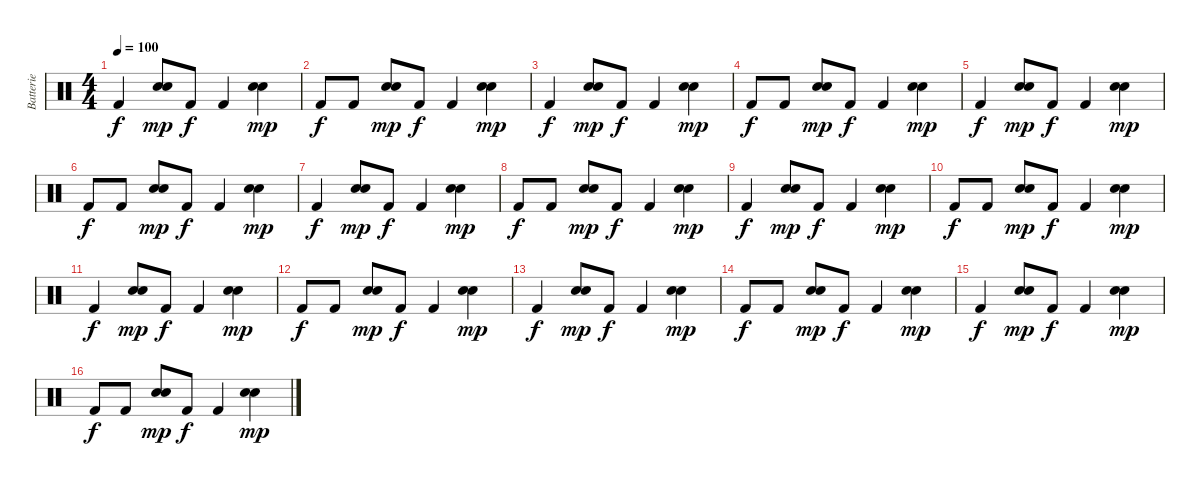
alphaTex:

\track ("Batterie" "Batterie") {instrument percussion}
\staff {score}
\articulation defaults
\ts (4 4)
\tempo 100
\clef neutral
\ks c "Kick (hit) 2".4{dy f}
("Hand Clap (hit)" "Snare (hit) 2").8{dy mp} "Kick (hit) 2".8{dy f} "Kick (hit) 2".4 ("Hand Clap (hit)" "Snare (hit) 2").4{dy mp} |
"Kick (hit) 2".8{dy f} "Kick (hit) 2".8 ("Hand Clap (hit)" "Snare (hit) 2").8{dy mp} "Kick (hit) 2".8{dy f} "Kick (hit) 2".4 ("Hand Clap (hit)" "Snare (hit) 2").4{dy mp} |
"Kick (hit) 2".4{dy f} ("Hand Clap (hit)" "Snare (hit) 2").8{dy mp} "Kick (hit) 2".8{dy f} "Kick (hit) 2".4 ("Hand Clap (hit)" "Snare (hit) 2").4{dy mp} |
"Kick (hit) 2".8{dy f} "Kick (hit) 2".8 ("Hand Clap (hit)" "Snare (hit) 2").8{dy mp} "Kick (hit) 2".8{dy f} "Kick (hit) 2".4 ("Hand Clap (hit)" "Snare (hit) 2").4{dy mp} |
"Kick (hit) 2".4{dy f} ("Hand Clap (hit)" "Snare (hit) 2").8{dy mp} "Kick (hit) 2".8{dy f} "Kick (hit) 2".4 ("Hand Clap (hit)" "Snare (hit) 2").4{dy mp} |
"Kick (hit) 2".8{dy f} "Kick (hit) 2".8 ("Hand Clap (hit)" "Snare (hit) 2").8{dy mp} "Kick (hit) 2".8{dy f} "Kick (hit) 2".4 ("Hand Clap (hit)" "Snare (hit) 2").4{dy mp} |
"Kick (hit) 2".4{dy f} ("Hand Clap (hit)" "Snare (hit) 2").8{dy mp} "Kick (hit) 2".8{dy f} "Kick (hit) 2".4 ("Hand Clap (hit)" "Snare (hit) 2").4{dy mp} |
"Kick (hit) 2".8{dy f} "Kick (hit) 2".8 ("Hand Clap (hit)" "Snare (hit) 2").8{dy mp} "Kick (hit) 2".8{dy f} "Kick (hit) 2".4 ("Hand Clap (hit)" "Snare (hit) 2").4{dy mp} |
"Kick (hit) 2".4{dy f} ("Hand Clap (hit)" "Snare (hit) 2").8{dy mp} "Kick (hit) 2".8{dy f} "Kick (hit) 2".4 ("Hand Clap (hit)" "Snare (hit) 2").4{dy mp} |
"Kick (hit) 2".8{dy f} "Kick (hit) 2".8 ("Hand Clap (hit)" "Snare (hit) 2").8{dy mp} "Kick (hit) 2".8{dy f} "Kick (hit) 2".4 ("Hand Clap (hit)" "Snare (hit) 2").4{dy mp} |
"Kick (hit) 2".4{dy f} ("Hand Clap (hit)" "Snare (hit) 2").8{dy mp} "Kick (hit) 2".8{dy f} "Kick (hit) 2".4 ("Hand Clap (hit)" "Snare (hit) 2").4{dy mp} |
"Kick (hit) 2".8{dy f} "Kick (hit) 2".8 ("Hand Clap (hit)" "Snare (hit) 2").8{dy mp} "Kick (hit) 2".8{dy f} "Kick (hit) 2".4 ("Hand Clap (hit)" "Snare (hit) 2").4{dy mp} |
"Kick (hit) 2".4{dy f} ("Hand Clap (hit)" "Snare (hit) 2").8{dy mp} "Kick (hit) 2".8{dy f} "Kick (hit) 2".4 ("Hand Clap (hit)" "Snare (hit) 2").4{dy mp} |
"Kick (hit) 2".8{dy f} "Kick (hit) 2".8 ("Hand Clap (hit)" "Snare (hit) 2").8{dy mp} "Kick (hit) 2".8{dy f} "Kick (hit) 2".4 ("Hand Clap (hit)" "Snare (hit) 2").4{dy mp} |
"Kick (hit) 2".4{dy f} ("Hand Clap (hit)" "Snare (hit) 2").8{dy mp} "Kick (hit) 2".8{dy f} "Kick (hit) 2".4 ("Hand Clap (hit)" "Snare (hit) 2").4{dy mp} |
"Kick (hit) 2".8{dy f} "Kick (hit) 2".8 ("Hand Clap (hit)" "Snare (hit) 2").8{dy mp} "Kick (hit) 2".8{dy f} "Kick (hit) 2".4 ("Hand Clap (hit)" "Snare (hit) 2").4{dy mp}
